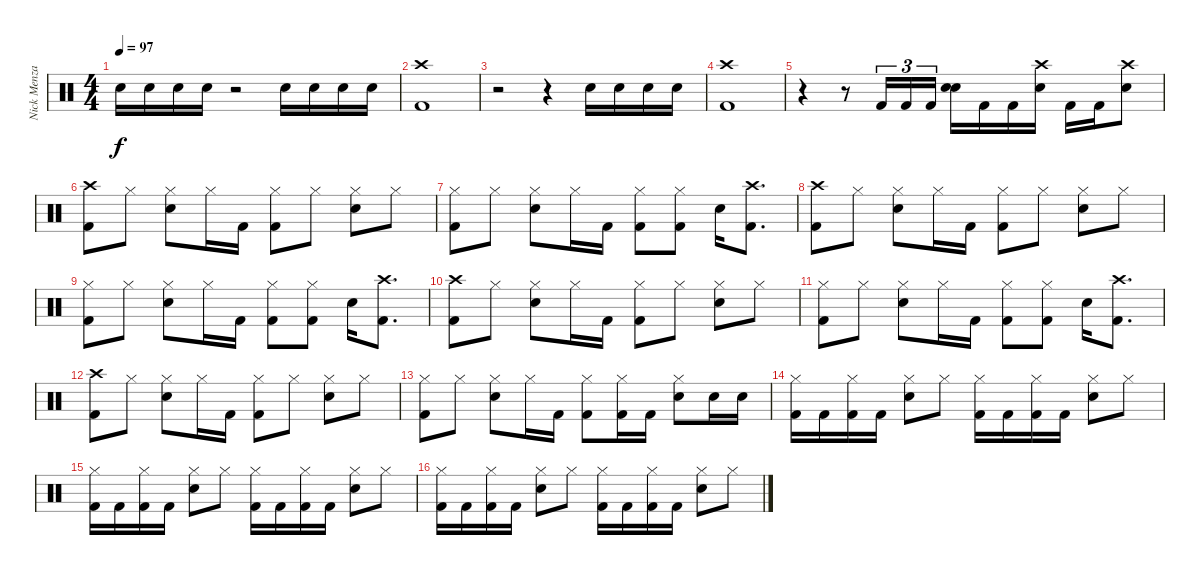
\track ("Nick Menza" "Nick Menza") {instrument percussion}
\staff {score}
\articulation defaults
\ts (4 4)
\tempo 97
\clef neutral
\ks c "Electric Snare (hit)".16{dy f} "Electric Snare (hit)".16 "Electric Snare (hit)".16 "Electric Snare (hit)".16
r.2 "Electric Snare (hit)".16 "Electric Snare (hit)".16 "Electric Snare (hit)".16 "Electric Snare (hit)".16 |
("Crash high (hit)" "Kick (hit) 2").1 |
r.2 r.4 "Electric Snare (hit)".16 "Electric Snare (hit)".16 "Electric Snare (hit)".16 "Electric Snare (hit)".16 |
("Crash high (hit)" "Kick (hit) 2").1 |
r.4 r.8 "Kick (hit) 2".16{tu (3 2)} "Kick (hit) 2".16{tu (3 2)} "Kick (hit) 2".16{tu (3 2)} ("Electric Snare (hit)" "Electric Snare (hit)").16 "Kick (hit) 2".16 "Kick (hit) 2".16 ("Crash high (hit)" "Electric Snare (hit)").16 "Kick (hit) 2".16 "Kick (hit) 2".16 ("Crash high (hit)" "Electric Snare (hit)").8 |
("Crash high (hit)" "Kick (hit) 2").8 "Hi-Hat (closed)".8 ("Hi-Hat (closed)" "Electric Snare (hit)").8 "Hi-Hat (closed)".16 "Kick (hit) 2".16 ("Hi-Hat (closed)" "Kick (hit) 2").8 "Hi-Hat (closed)".8 ("Hi-Hat (closed)" "Electric Snare (hit)").8 "Hi-Hat (closed)".8 |
("Hi-Hat (closed)" "Kick (hit) 2").8 "Hi-Hat (closed)".8 ("Hi-Hat (closed)" "Electric Snare (hit)").8 "Hi-Hat (closed)".16 "Kick (hit) 2".16 ("Hi-Hat (closed)" "Kick (hit) 2").8 ("Hi-Hat (closed)" "Kick (hit) 2").8 "Electric Snare (hit)".16 ("Crash high (hit)" "Kick (hit) 2").8{d} |
("Crash high (hit)" "Kick (hit) 2").8 "Hi-Hat (closed)".8 ("Hi-Hat (closed)" "Electric Snare (hit)").8 "Hi-Hat (closed)".16 "Kick (hit) 2".16 ("Hi-Hat (closed)" "Kick (hit) 2").8 "Hi-Hat (closed)".8 ("Hi-Hat (closed)" "Electric Snare (hit)").8 "Hi-Hat (closed)".8 |
("Hi-Hat (closed)" "Kick (hit) 2").8 "Hi-Hat (closed)".8 ("Hi-Hat (closed)" "Electric Snare (hit)").8 "Hi-Hat (closed)".16 "Kick (hit) 2".16 ("Hi-Hat (closed)" "Kick (hit) 2").8 ("Hi-Hat (closed)" "Kick (hit) 2").8 "Electric Snare (hit)".16 ("Crash high (hit)" "Kick (hit) 2").8{d} |
("Crash high (hit)" "Kick (hit) 2").8 "Hi-Hat (closed)".8 ("Hi-Hat (closed)" "Electric Snare (hit)").8 "Hi-Hat (closed)".16 "Kick (hit) 2".16 ("Hi-Hat (closed)" "Kick (hit) 2").8 "Hi-Hat (closed)".8 ("Hi-Hat (closed)" "Electric Snare (hit)").8 "Hi-Hat (closed)".8 |
("Hi-Hat (closed)" "Kick (hit) 2").8 "Hi-Hat (closed)".8 ("Hi-Hat (closed)" "Electric Snare (hit)").8 "Hi-Hat (closed)".16 "Kick (hit) 2".16 ("Hi-Hat (closed)" "Kick (hit) 2").8 ("Hi-Hat (closed)" "Kick (hit) 2").8 "Electric Snare (hit)".16 ("Crash high (hit)" "Kick (hit) 2").8{d} |
("Crash high (hit)" "Kick (hit) 2").8 "Hi-Hat (closed)".8 ("Hi-Hat (closed)" "Electric Snare (hit)").8 "Hi-Hat (closed)".16 "Kick (hit) 2".16 ("Hi-Hat (closed)" "Kick (hit) 2").8 "Hi-Hat (closed)".8 ("Hi-Hat (closed)" "Electric Snare (hit)").8 "Hi-Hat (closed)".8 |
("Hi-Hat (closed)" "Kick (hit) 2").8 "Hi-Hat (closed)".8 ("Hi-Hat (closed)" "Electric Snare (hit)").8 "Hi-Hat (closed)".16 "Kick (hit) 2".16 ("Hi-Hat (closed)" "Kick (hit) 2").8 ("Hi-Hat (closed)" "Kick (hit) 2").16 "Kick (hit) 2".16 ("Hi-Hat (closed)" "Electric Snare (hit)").8 "Electric Snare (hit)".16 "Electric Snare (hit)".16 |
("Hi-Hat (closed)" "Kick (hit) 2").16 "Kick (hit) 2".16 ("Hi-Hat (closed)" "Kick (hit) 2").16 "Kick (hit) 2".16 ("Hi-Hat (closed)" "Electric Snare (hit)").8 "Hi-Hat (closed)".8 ("Hi-Hat (closed)" "Kick (hit) 2").16 "Kick (hit) 2".16 ("Hi-Hat (closed)" "Kick (hit) 2").16 "Kick (hit) 2".16 ("Hi-Hat (closed)" "Electric Snare (hit)").8 "Hi-Hat (closed)".8 |
("Hi-Hat (closed)" "Kick (hit) 2").16 "Kick (hit) 2".16 ("Hi-Hat (closed)" "Kick (hit) 2").16 "Kick (hit) 2".16 ("Hi-Hat (closed)" "Electric Snare (hit)").8 "Hi-Hat (closed)".8 ("Hi-Hat (closed)" "Kick (hit) 2").16 "Kick (hit) 2".16 ("Hi-Hat (closed)" "Kick (hit) 2").16 "Kick (hit) 2".16 ("Hi-Hat (closed)" "Electric Snare (hit)").8 "Hi-Hat (closed)".8 |
("Hi-Hat (closed)" "Kick (hit) 2").16 "Kick (hit) 2".16 ("Hi-Hat (closed)" "Kick (hit) 2").16 "Kick (hit) 2".16 ("Hi-Hat (closed)" "Electric Snare (hit)").8 "Hi-Hat (closed)".8 ("Hi-Hat (closed)" "Kick (hit) 2").16 "Kick (hit) 2".16 ("Hi-Hat (closed)" "Kick (hit) 2").16 "Kick (hit) 2".16 ("Hi-Hat (closed)" "Electric Snare (hit)").8 "Hi-Hat (closed)".8
